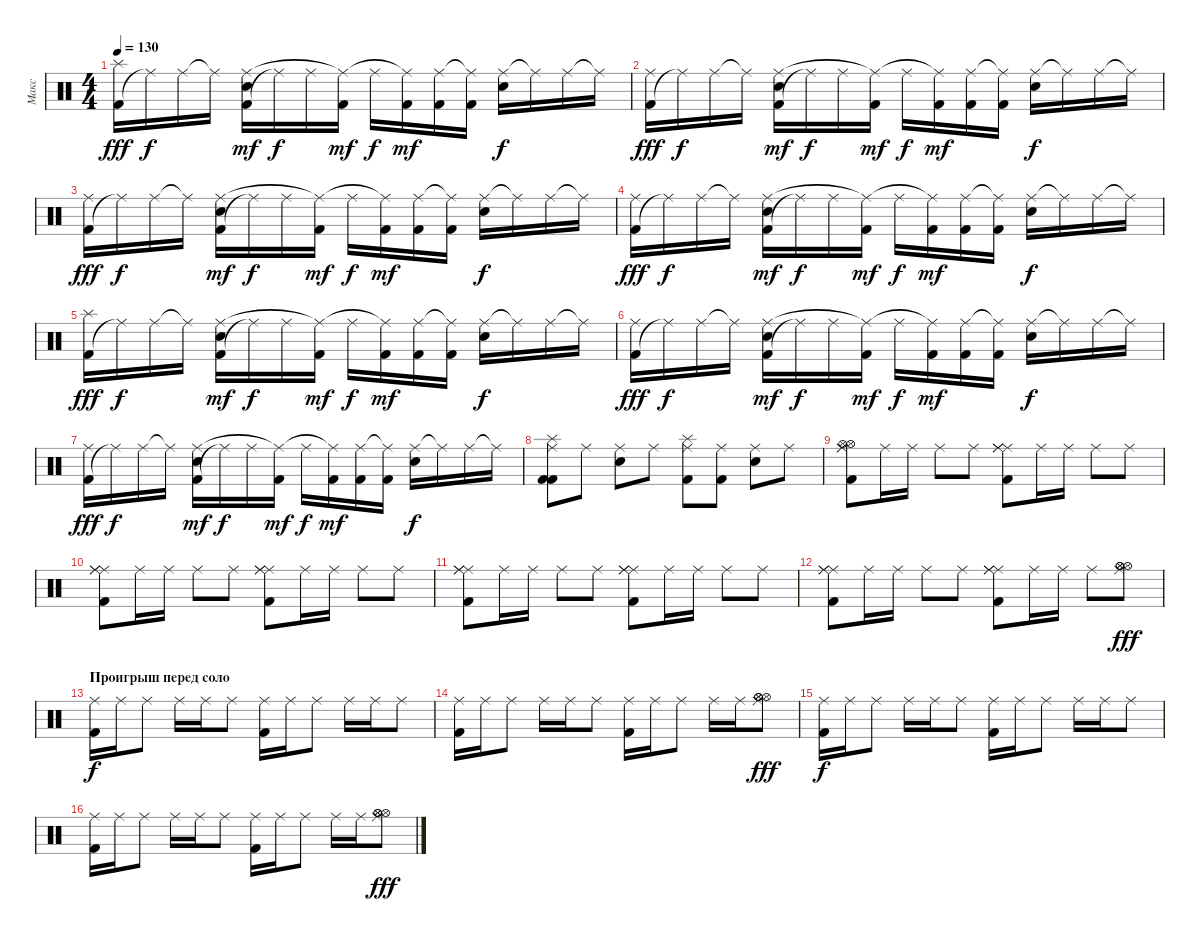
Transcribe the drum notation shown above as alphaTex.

\track ("Макс" "Макс") {instrument percussion}
\staff {score}
\articulation defaults
\ts (4 4)
\tempo 130
\clef neutral
\ks c
("Kick (hit) 2" "Splash (hit)").16{dy fff} "Ride (middle)"{t}.16{dy f} "Ride (middle)".16 "Ride (middle)"{t}.16 ("Kick (hit) 2" "Ride (middle)" "Electric Snare (hit)").16{dy mf} "Ride (middle)"{t}.16{dy f} "Ride (middle)".16 ("Kick (hit) 2" "Ride (middle)"{t}).16{dy mf} "Ride (middle)".16{dy f} ("Kick (hit) 2" "Ride (middle)"{t}).16{dy mf} ("Kick (hit) 2" "Ride (middle)").16 ("Kick (hit) 2" "Ride (middle)"{t}).16 ("Ride (middle)" "Electric Snare (hit)").16{dy f} "Ride (middle)"{t}.16 "Ride (middle)".16 "Ride (middle)"{t}.16 |
("Kick (hit) 2" "Ride (middle)").16{dy fff} "Ride (middle)"{t}.16{dy f} "Ride (middle)".16 "Ride (middle)"{t}.16 ("Kick (hit) 2" "Ride (middle)" "Electric Snare (hit)").16{dy mf} "Ride (middle)"{t}.16{dy f} "Ride (middle)".16 ("Kick (hit) 2" "Ride (middle)"{t}).16{dy mf} "Ride (middle)".16{dy f} ("Kick (hit) 2" "Ride (middle)"{t}).16{dy mf} ("Kick (hit) 2" "Ride (middle)").16 ("Kick (hit) 2" "Ride (middle)"{t}).16 ("Ride (middle)" "Electric Snare (hit)").16{dy f} "Ride (middle)"{t}.16 "Ride (middle)".16 "Ride (middle)"{t}.16 |
("Kick (hit) 2" "Ride (middle)").16{dy fff} "Ride (middle)"{t}.16{dy f} "Ride (middle)".16 "Ride (middle)"{t}.16 ("Kick (hit) 2" "Ride (middle)" "Electric Snare (hit)").16{dy mf} "Ride (middle)"{t}.16{dy f} "Ride (middle)".16 ("Kick (hit) 2" "Ride (middle)"{t}).16{dy mf} "Ride (middle)".16{dy f} ("Kick (hit) 2" "Ride (middle)"{t}).16{dy mf} ("Kick (hit) 2" "Ride (middle)").16 ("Kick (hit) 2" "Ride (middle)"{t}).16 ("Ride (middle)" "Electric Snare (hit)").16{dy f} "Ride (middle)"{t}.16 "Ride (middle)".16 "Ride (middle)"{t}.16 |
("Kick (hit) 2" "Ride (middle)").16{dy fff} "Ride (middle)"{t}.16{dy f} "Ride (middle)".16 "Ride (middle)"{t}.16 ("Kick (hit) 2" "Ride (middle)" "Electric Snare (hit)").16{dy mf} "Ride (middle)"{t}.16{dy f} "Ride (middle)".16 ("Kick (hit) 2" "Ride (middle)"{t}).16{dy mf} "Ride (middle)".16{dy f} ("Kick (hit) 2" "Ride (middle)"{t}).16{dy mf} ("Kick (hit) 2" "Ride (middle)").16 ("Kick (hit) 2" "Ride (middle)"{t}).16 ("Ride (middle)" "Electric Snare (hit)").16{dy f} "Ride (middle)"{t}.16 "Ride (middle)".16 "Ride (middle)"{t}.16 |
("Kick (hit) 2" "Splash (hit)").16{dy fff} "Ride (middle)"{t}.16{dy f} "Ride (middle)".16 "Ride (middle)"{t}.16 ("Kick (hit) 2" "Ride (middle)" "Electric Snare (hit)").16{dy mf} "Ride (middle)"{t}.16{dy f} "Ride (middle)".16 ("Kick (hit) 2" "Ride (middle)"{t}).16{dy mf} "Ride (middle)".16{dy f} ("Kick (hit) 2" "Ride (middle)"{t}).16{dy mf} ("Kick (hit) 2" "Ride (middle)").16 ("Kick (hit) 2" "Ride (middle)"{t}).16 ("Ride (middle)" "Electric Snare (hit)").16{dy f} "Ride (middle)"{t}.16 "Ride (middle)".16 "Ride (middle)"{t}.16 |
("Kick (hit) 2" "Ride (middle)").16{dy fff} "Ride (middle)"{t}.16{dy f} "Ride (middle)".16 "Ride (middle)"{t}.16 ("Kick (hit) 2" "Ride (middle)" "Electric Snare (hit)").16{dy mf} "Ride (middle)"{t}.16{dy f} "Ride (middle)".16 ("Kick (hit) 2" "Ride (middle)"{t}).16{dy mf} "Ride (middle)".16{dy f} ("Kick (hit) 2" "Ride (middle)"{t}).16{dy mf} ("Kick (hit) 2" "Ride (middle)").16 ("Kick (hit) 2" "Ride (middle)"{t}).16 ("Ride (middle)" "Electric Snare (hit)").16{dy f} "Ride (middle)"{t}.16 "Ride (middle)".16 "Ride (middle)"{t}.16 |
("Kick (hit) 2" "Ride (middle)").16{dy fff} "Ride (middle)"{t}.16{dy f} "Ride (middle)".16 "Ride (middle)"{t}.16 ("Kick (hit) 2" "Ride (middle)" "Electric Snare (hit)").16{dy mf} "Ride (middle)"{t}.16{dy f} "Ride (middle)".16 ("Kick (hit) 2" "Ride (middle)"{t}).16{dy mf} "Ride (middle)".16{dy f} ("Kick (hit) 2" "Ride (middle)"{t}).16{dy mf} ("Kick (hit) 2" "Ride (middle)").16 ("Kick (hit) 2" "Ride (middle)"{t}).16 ("Ride (middle)" "Electric Snare (hit)").16{dy f} "Ride (middle)"{t}.16 "Ride (middle)".16 "Ride (middle)"{t}.16 |
("Splash (hit)" "Kick (hit) 2" "Ride (middle)" "Kick (hit) 2").8 "Ride (middle)".8 ("Ride (middle)" "Electric Snare (hit)").8 "Ride (middle)".8 ("Splash (hit)" "Kick (hit) 2" "Ride (middle)").8 ("Ride (middle)" "Kick (hit) 2").8 ("Ride (middle)" "Electric Snare (hit)").8 "Ride (middle)".8 |
("Hi-Hat (open)" "Ride (middle)" "Ride (middle)" "Kick (hit) 2" "Hi-Hat (open)").8 "Ride (middle)".16 "Ride (middle)".16 "Ride (middle)".8 "Ride (middle)".8 ("Ride (middle)" "Ride (middle)" "Ride (middle)" "Kick (hit) 2").8 "Ride (middle)".16 "Ride (middle)".16 "Ride (middle)".8 "Ride (middle)".8 |
("Ride (middle)" "Ride (middle)" "Ride (middle)" "Kick (hit) 2").8 "Ride (middle)".16 "Ride (middle)".16 "Ride (middle)".8 "Ride (middle)".8 ("Ride (middle)" "Ride (middle)" "Ride (middle)" "Kick (hit) 2").8 "Ride (middle)".16 "Ride (middle)".16 "Ride (middle)".8 "Ride (middle)".8 |
("Ride (middle)" "Ride (middle)" "Ride (middle)" "Kick (hit) 2").8 "Ride (middle)".16 "Ride (middle)".16 "Ride (middle)".8 "Ride (middle)".8 ("Ride (middle)" "Ride (middle)" "Ride (middle)" "Kick (hit) 2").8 "Ride (middle)".16 "Ride (middle)".16 "Ride (middle)".8 "Ride (middle)".8 |
("Ride (middle)" "Ride (middle)" "Ride (middle)" "Kick (hit) 2").8 "Ride (middle)".16 "Ride (middle)".16 "Ride (middle)".8 "Ride (middle)".8 ("Ride (middle)" "Ride (middle)" "Ride (middle)" "Kick (hit) 2").8 "Ride (middle)".16 "Ride (middle)".16 "Ride (middle)".8 ("Hi-Hat (open)" "Hi-Hat (open)" "Ride (middle)" "Hi-Hat (open)").8{dy fff} |
\section ("" "Проигрыш перед соло")
("Ride (middle)" "Kick (hit) 2").16{dy f} "Ride (middle)".16 "Ride (middle)".8 "Ride (middle)".16 "Ride (middle)".16 "Ride (middle)".8 ("Ride (middle)" "Kick (hit) 2").16 "Ride (middle)".16 "Ride (middle)".8 "Ride (middle)".16 "Ride (middle)".16 "Ride (middle)".8 |
("Ride (middle)" "Kick (hit) 2").16 "Ride (middle)".16 "Ride (middle)".8 "Ride (middle)".16 "Ride (middle)".16 "Ride (middle)".8 ("Ride (middle)" "Kick (hit) 2").16 "Ride (middle)".16 "Ride (middle)".8 "Ride (middle)".16 "Ride (middle)".16 ("Hi-Hat (open)" "Hi-Hat (open)" "Ride (middle)" "Hi-Hat (open)").8{dy fff} |
("Ride (middle)" "Kick (hit) 2").16{dy f} "Ride (middle)".16 "Ride (middle)".8 "Ride (middle)".16 "Ride (middle)".16 "Ride (middle)".8 ("Ride (middle)" "Kick (hit) 2").16 "Ride (middle)".16 "Ride (middle)".8 "Ride (middle)".16 "Ride (middle)".16 "Ride (middle)".8 |
("Ride (middle)" "Kick (hit) 2").16 "Ride (middle)".16 "Ride (middle)".8 "Ride (middle)".16 "Ride (middle)".16 "Ride (middle)".8 ("Ride (middle)" "Kick (hit) 2").16 "Ride (middle)".16 "Ride (middle)".8 "Ride (middle)".16 "Ride (middle)".16 ("Hi-Hat (open)" "Hi-Hat (open)" "Ride (middle)" "Hi-Hat (open)").8{dy fff}
